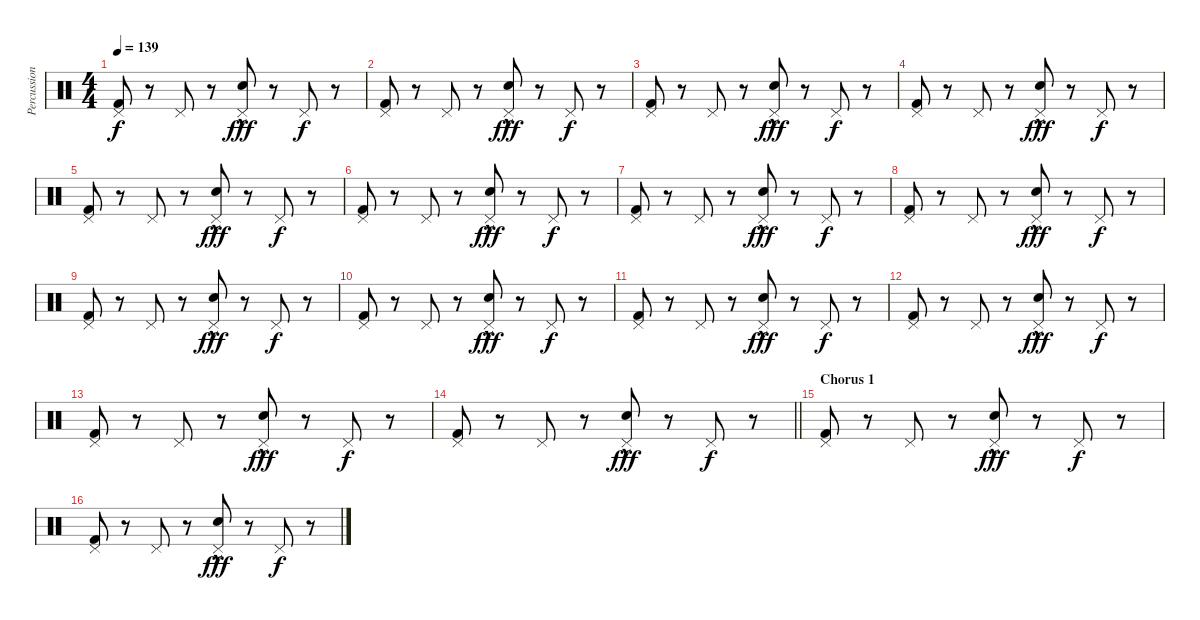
\track ("Percussion" "Percussion") {instrument percussion}
\staff {score}
\articulation defaults
\ts (4 4)
\tempo 139
\clef neutral
\ks c
("Kick (hit) 2" "Pedal Hi-Hat (hit)").8{dy f} r.8 "Pedal Hi-Hat (hit)".8 r.8 ("Electric Snare (hit)"{hac} "Pedal Hi-Hat (hit)").8{dy fff} r.8 "Pedal Hi-Hat (hit)".8{dy f} r.8 |
("Kick (hit) 2" "Pedal Hi-Hat (hit)").8 r.8 "Pedal Hi-Hat (hit)".8 r.8 ("Electric Snare (hit)"{hac} "Pedal Hi-Hat (hit)").8{dy fff} r.8 "Pedal Hi-Hat (hit)".8{dy f} r.8 |
("Kick (hit) 2" "Pedal Hi-Hat (hit)").8 r.8 "Pedal Hi-Hat (hit)".8 r.8 ("Electric Snare (hit)"{hac} "Pedal Hi-Hat (hit)").8{dy fff} r.8 "Pedal Hi-Hat (hit)".8{dy f} r.8 |
("Kick (hit) 2" "Pedal Hi-Hat (hit)").8 r.8 "Pedal Hi-Hat (hit)".8 r.8 ("Electric Snare (hit)"{hac} "Pedal Hi-Hat (hit)").8{dy fff} r.8 "Pedal Hi-Hat (hit)".8{dy f} r.8 |
("Kick (hit) 2" "Pedal Hi-Hat (hit)").8 r.8 "Pedal Hi-Hat (hit)".8 r.8 ("Electric Snare (hit)"{hac} "Pedal Hi-Hat (hit)").8{dy fff} r.8 "Pedal Hi-Hat (hit)".8{dy f} r.8 |
("Kick (hit) 2" "Pedal Hi-Hat (hit)").8 r.8 "Pedal Hi-Hat (hit)".8 r.8 ("Electric Snare (hit)"{hac} "Pedal Hi-Hat (hit)").8{dy fff} r.8 "Pedal Hi-Hat (hit)".8{dy f} r.8 |
("Kick (hit) 2" "Pedal Hi-Hat (hit)").8 r.8 "Pedal Hi-Hat (hit)".8 r.8 ("Electric Snare (hit)"{hac} "Pedal Hi-Hat (hit)").8{dy fff} r.8 "Pedal Hi-Hat (hit)".8{dy f} r.8 |
("Kick (hit) 2" "Pedal Hi-Hat (hit)").8 r.8 "Pedal Hi-Hat (hit)".8 r.8 ("Electric Snare (hit)"{hac} "Pedal Hi-Hat (hit)").8{dy fff} r.8 "Pedal Hi-Hat (hit)".8{dy f} r.8 |
("Kick (hit) 2" "Pedal Hi-Hat (hit)").8 r.8 "Pedal Hi-Hat (hit)".8 r.8 ("Electric Snare (hit)"{hac} "Pedal Hi-Hat (hit)").8{dy fff} r.8 "Pedal Hi-Hat (hit)".8{dy f} r.8 |
("Kick (hit) 2" "Pedal Hi-Hat (hit)").8 r.8 "Pedal Hi-Hat (hit)".8 r.8 ("Electric Snare (hit)"{hac} "Pedal Hi-Hat (hit)").8{dy fff} r.8 "Pedal Hi-Hat (hit)".8{dy f} r.8 |
("Kick (hit) 2" "Pedal Hi-Hat (hit)").8 r.8 "Pedal Hi-Hat (hit)".8 r.8 ("Electric Snare (hit)"{hac} "Pedal Hi-Hat (hit)").8{dy fff} r.8 "Pedal Hi-Hat (hit)".8{dy f} r.8 |
("Kick (hit) 2" "Pedal Hi-Hat (hit)").8 r.8 "Pedal Hi-Hat (hit)".8 r.8 ("Electric Snare (hit)"{hac} "Pedal Hi-Hat (hit)").8{dy fff} r.8 "Pedal Hi-Hat (hit)".8{dy f} r.8 |
("Kick (hit) 2" "Pedal Hi-Hat (hit)").8 r.8 "Pedal Hi-Hat (hit)".8 r.8 ("Electric Snare (hit)"{hac} "Pedal Hi-Hat (hit)").8{dy fff} r.8 "Pedal Hi-Hat (hit)".8{dy f} r.8 |
\barLineRight lightlight
("Kick (hit) 2" "Pedal Hi-Hat (hit)").8 r.8 "Pedal Hi-Hat (hit)".8 r.8 ("Electric Snare (hit)"{hac} "Pedal Hi-Hat (hit)").8{dy fff} r.8 "Pedal Hi-Hat (hit)".8{dy f} r.8 |
\section ("" "Chorus 1")
("Kick (hit) 2" "Pedal Hi-Hat (hit)").8 r.8 "Pedal Hi-Hat (hit)".8 r.8 ("Electric Snare (hit)"{hac} "Pedal Hi-Hat (hit)").8{dy fff} r.8 "Pedal Hi-Hat (hit)".8{dy f} r.8 |
("Kick (hit) 2" "Pedal Hi-Hat (hit)").8 r.8 "Pedal Hi-Hat (hit)".8 r.8 ("Electric Snare (hit)"{hac} "Pedal Hi-Hat (hit)").8{dy fff} r.8 "Pedal Hi-Hat (hit)".8{dy f} r.8
